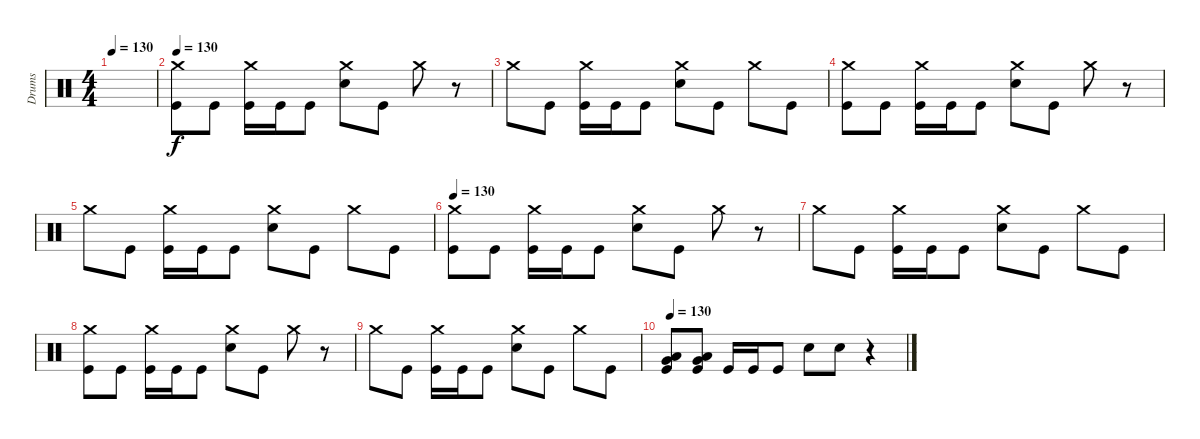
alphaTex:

\track ("Drums" "Drums") {instrument percussion}
\staff {score}
\articulation defaults
\ts (4 4)
\tempo 130
\clef neutral
\ks c
|
\tempo 130
("Crash medium (hit)" "Kick (hit)").8 "Kick (hit)".8 ("Crash medium (hit)" "Kick (hit)").16 "Kick (hit)".16 "Kick (hit)".8 ("Crash medium (hit)" "Electric Snare (hit)").8 "Kick (hit)".8 "Crash medium (hit)".8 r.8 |
"Crash medium (hit)".8 "Kick (hit)".8 ("Crash medium (hit)" "Kick (hit)").16 "Kick (hit)".16 "Kick (hit)".8 ("Crash medium (hit)" "Electric Snare (hit)").8 "Kick (hit)".8 "Crash medium (hit)".8 "Kick (hit)".8 |
("Crash medium (hit)" "Kick (hit)").8 "Kick (hit)".8 ("Crash medium (hit)" "Kick (hit)").16 "Kick (hit)".16 "Kick (hit)".8 ("Crash medium (hit)" "Electric Snare (hit)").8 "Kick (hit)".8 "Crash medium (hit)".8 r.8 |
"Crash medium (hit)".8 "Kick (hit)".8 ("Crash medium (hit)" "Kick (hit)").16 "Kick (hit)".16 "Kick (hit)".8 ("Crash medium (hit)" "Electric Snare (hit)").8 "Kick (hit)".8 "Crash medium (hit)".8 "Kick (hit)".8 |
\tempo 130
("Crash medium (hit)" "Kick (hit)").8 "Kick (hit)".8 ("Crash medium (hit)" "Kick (hit)").16 "Kick (hit)".16 "Kick (hit)".8 ("Crash medium (hit)" "Electric Snare (hit)").8 "Kick (hit)".8 "Crash medium (hit)".8 r.8 |
"Crash medium (hit)".8 "Kick (hit)".8 ("Crash medium (hit)" "Kick (hit)").16 "Kick (hit)".16 "Kick (hit)".8 ("Crash medium (hit)" "Electric Snare (hit)").8 "Kick (hit)".8 "Crash medium (hit)".8 "Kick (hit)".8 |
("Crash medium (hit)" "Kick (hit)").8 "Kick (hit)".8 ("Crash medium (hit)" "Kick (hit)").16 "Kick (hit)".16 "Kick (hit)".8 ("Crash medium (hit)" "Electric Snare (hit)").8 "Kick (hit)".8 "Crash medium (hit)".8 r.8 |
"Crash medium (hit)".8 "Kick (hit)".8 ("Crash medium (hit)" "Kick (hit)").16 "Kick (hit)".16 "Kick (hit)".8 ("Crash medium (hit)" "Electric Snare (hit)").8 "Kick (hit)".8 "Crash medium (hit)".8 "Kick (hit)".8 |
\tempo 130
("Very Low Tom (hit)" "Low Tom (hit)" "Kick (hit)").8 ("Very Low Tom (hit)" "Low Tom (hit)" "Kick (hit)").8 "Kick (hit)".16 "Kick (hit)".16 "Kick (hit)".8 "Electric Snare (hit)".8 "Electric Snare (hit)".8 r.4
